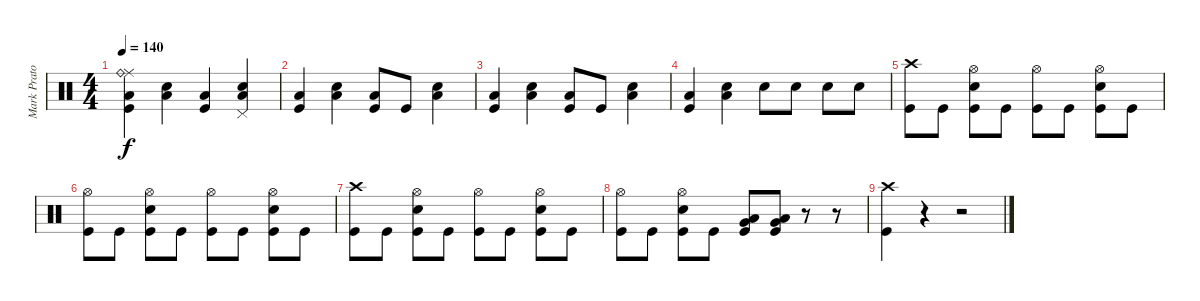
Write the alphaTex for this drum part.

\track ("Mark Prator" "Mark Prato") {instrument percussion}
\staff {score}
\articulation defaults
\ts (4 4)
\tempo 140
\clef neutral
\ks c
("Ride (middle)" "Ride (bell)" "Low Floor Tom (hit)" "Kick (hit)").4{dy f} ("Low Floor Tom (hit)" "Snare (hit) 2").4 ("Low Floor Tom (hit)" "Kick (hit)").4 ("Low Floor Tom (hit)" "Snare (hit) 2" "Pedal Hi-Hat (hit)").4 |
("Low Floor Tom (hit)" "Kick (hit)").4 ("Low Floor Tom (hit)" "Snare (hit) 2").4 ("Low Floor Tom (hit)" "Kick (hit)").8 "Kick (hit)".8 ("Low Floor Tom (hit)" "Snare (hit) 2").4 |
("Low Floor Tom (hit)" "Kick (hit)").4 ("Low Floor Tom (hit)" "Snare (hit) 2").4 ("Low Floor Tom (hit)" "Kick (hit)").8 "Kick (hit)".8 ("Low Floor Tom (hit)" "Snare (hit) 2").4 |
("Low Floor Tom (hit)" "Kick (hit)").4 ("Low Floor Tom (hit)" "Snare (hit) 2").4 "Snare (hit) 2".8 "Snare (hit) 2".8 "Snare (hit) 2".8 "Snare (hit) 2".8 |
("Crash high (hit)" "Kick (hit)").8 "Kick (hit)".8 ("Hi-Hat (open)" "Snare (hit) 2" "Kick (hit)").8 "Kick (hit)".8 ("Hi-Hat (open)" "Kick (hit)").8 "Kick (hit)".8 ("Hi-Hat (open)" "Snare (hit) 2" "Kick (hit)").8 "Kick (hit)".8 |
("Hi-Hat (open)" "Kick (hit)").8 "Kick (hit)".8 ("Hi-Hat (open)" "Snare (hit) 2" "Kick (hit)").8 "Kick (hit)".8 ("Hi-Hat (open)" "Kick (hit)").8 "Kick (hit)".8 ("Hi-Hat (open)" "Snare (hit) 2" "Kick (hit)").8 "Kick (hit)".8 |
("Crash high (hit)" "Kick (hit)").8 "Kick (hit)".8 ("Hi-Hat (open)" "Snare (hit) 2" "Kick (hit)").8 "Kick (hit)".8 ("Hi-Hat (open)" "Kick (hit)").8 "Kick (hit)".8 ("Hi-Hat (open)" "Snare (hit) 2" "Kick (hit)").8 "Kick (hit)".8 |
("Hi-Hat (open)" "Kick (hit)").8 "Kick (hit)".8 ("Hi-Hat (open)" "Snare (hit) 2" "Kick (hit)").8 "Kick (hit)".8 ("Low Floor Tom (hit)" "Very Low Tom (hit)" "Kick (hit)").8 ("Low Floor Tom (hit)" "Very Low Tom (hit)" "Kick (hit)").8 r.8 r.8 |
("Crash high (hit)" "Kick (hit)").4 r.4 r.2
